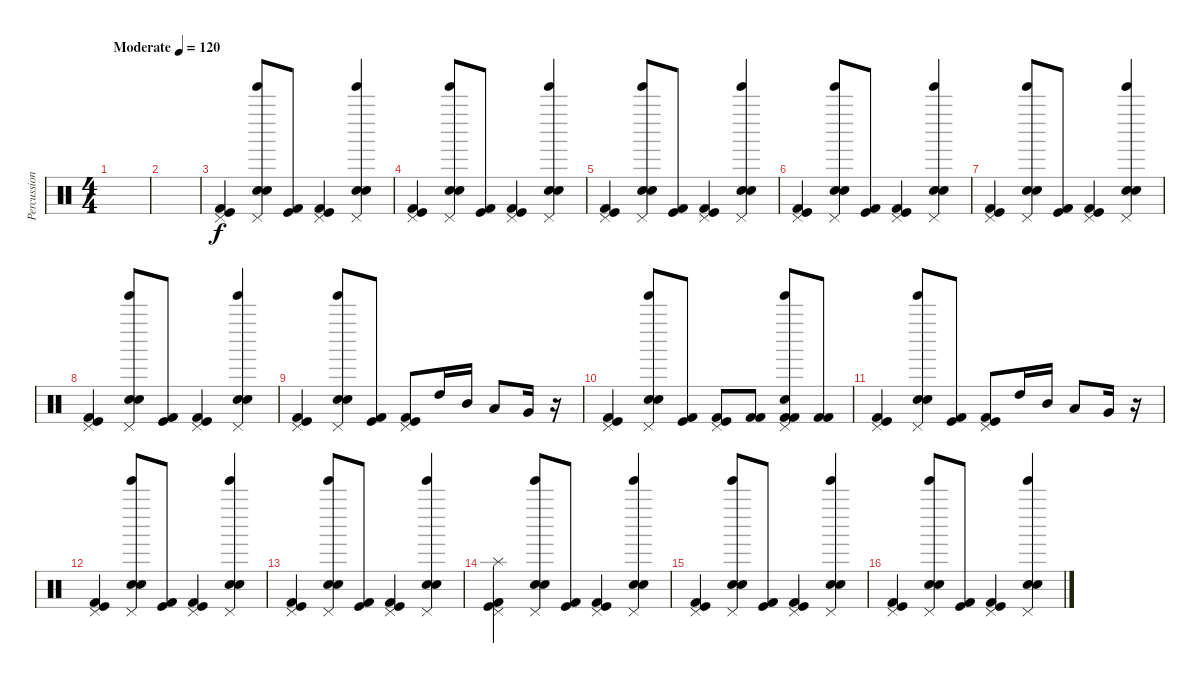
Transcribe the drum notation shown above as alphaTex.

\track ("Percussion" "Percussion") {instrument percussion}
\staff {score}
\articulation defaults
\ts (4 4)
\tempo (120 "Moderate")
\clef neutral
\ks c
|
|
("Pedal Hi-Hat (hit)" "Kick (hit)" "Kick (hit) 2").4 ("Tinkle Bell (hit)" "Pedal Hi-Hat (hit)" "Snare (hit) 2" "Electric Snare (hit)").8 ("Kick (hit)" "Kick (hit) 2").8 ("Pedal Hi-Hat (hit)" "Kick (hit)" "Kick (hit) 2").4 ("Tinkle Bell (hit)" "Pedal Hi-Hat (hit)" "Snare (hit) 2" "Electric Snare (hit)").4 |
("Pedal Hi-Hat (hit)" "Kick (hit)" "Kick (hit) 2").4 ("Tinkle Bell (hit)" "Pedal Hi-Hat (hit)" "Snare (hit) 2" "Electric Snare (hit)").8 ("Kick (hit)" "Kick (hit) 2").8 ("Pedal Hi-Hat (hit)" "Kick (hit)" "Kick (hit) 2").4 ("Tinkle Bell (hit)" "Pedal Hi-Hat (hit)" "Snare (hit) 2" "Electric Snare (hit)").4 |
("Pedal Hi-Hat (hit)" "Kick (hit)" "Kick (hit) 2").4 ("Tinkle Bell (hit)" "Pedal Hi-Hat (hit)" "Snare (hit) 2" "Electric Snare (hit)").8 ("Kick (hit)" "Kick (hit) 2").8 ("Pedal Hi-Hat (hit)" "Kick (hit)" "Kick (hit) 2").4 ("Tinkle Bell (hit)" "Pedal Hi-Hat (hit)" "Snare (hit) 2" "Electric Snare (hit)").4 |
("Pedal Hi-Hat (hit)" "Kick (hit)" "Kick (hit) 2").4 ("Tinkle Bell (hit)" "Pedal Hi-Hat (hit)" "Snare (hit) 2" "Electric Snare (hit)").8 ("Kick (hit)" "Kick (hit) 2").8 ("Pedal Hi-Hat (hit)" "Kick (hit)" "Kick (hit) 2").4 ("Tinkle Bell (hit)" "Pedal Hi-Hat (hit)" "Snare (hit) 2" "Electric Snare (hit)").4 |
("Pedal Hi-Hat (hit)" "Kick (hit)" "Kick (hit) 2").4 ("Tinkle Bell (hit)" "Pedal Hi-Hat (hit)" "Snare (hit) 2" "Electric Snare (hit)").8 ("Kick (hit)" "Kick (hit) 2").8 ("Pedal Hi-Hat (hit)" "Kick (hit)" "Kick (hit) 2").4 ("Tinkle Bell (hit)" "Pedal Hi-Hat (hit)" "Snare (hit) 2" "Electric Snare (hit)").4 |
("Pedal Hi-Hat (hit)" "Kick (hit)" "Kick (hit) 2").4 ("Tinkle Bell (hit)" "Pedal Hi-Hat (hit)" "Snare (hit) 2" "Electric Snare (hit)").8 ("Kick (hit)" "Kick (hit) 2").8 ("Pedal Hi-Hat (hit)" "Kick (hit)" "Kick (hit) 2").4 ("Tinkle Bell (hit)" "Pedal Hi-Hat (hit)" "Snare (hit) 2" "Electric Snare (hit)").4 |
("Pedal Hi-Hat (hit)" "Kick (hit)" "Kick (hit) 2").4 ("Tinkle Bell (hit)" "Pedal Hi-Hat (hit)" "Snare (hit) 2" "Electric Snare (hit)").8 ("Kick (hit)" "Kick (hit) 2").8 ("Pedal Hi-Hat (hit)" "Kick (hit)" "Kick (hit) 2").8 "High Tom (hit)".16 "Mid Tom (hit)".16 "Low Tom (hit)".8 "Very Low Tom (hit)".16 r.16 |
("Pedal Hi-Hat (hit)" "Kick (hit)" "Kick (hit) 2").4 ("Tinkle Bell (hit)" "Pedal Hi-Hat (hit)" "Snare (hit) 2" "Electric Snare (hit)").8 ("Kick (hit)" "Kick (hit) 2").8 ("Pedal Hi-Hat (hit)" "Kick (hit)" "Kick (hit) 2").8 ("Kick (hit) 2" "Kick (hit) 2").8 ("Tinkle Bell (hit)" "Pedal Hi-Hat (hit)" "Snare (hit) 2" "Kick (hit) 2" "Kick (hit) 2").8 ("Kick (hit) 2" "Kick (hit) 2").8 |
("Pedal Hi-Hat (hit)" "Kick (hit)" "Kick (hit) 2").4 ("Tinkle Bell (hit)" "Pedal Hi-Hat (hit)" "Snare (hit) 2" "Electric Snare (hit)").8 ("Kick (hit)" "Kick (hit) 2").8 ("Pedal Hi-Hat (hit)" "Kick (hit)" "Kick (hit) 2").8 "High Tom (hit)".16 "Mid Tom (hit)".16 "Low Tom (hit)".8 "Very Low Tom (hit)".16 r.16 |
("Pedal Hi-Hat (hit)" "Kick (hit)" "Kick (hit) 2").4 ("Tinkle Bell (hit)" "Pedal Hi-Hat (hit)" "Snare (hit) 2" "Electric Snare (hit)").8 ("Kick (hit)" "Kick (hit) 2").8 ("Pedal Hi-Hat (hit)" "Kick (hit)" "Kick (hit) 2").4 ("Tinkle Bell (hit)" "Pedal Hi-Hat (hit)" "Snare (hit) 2" "Electric Snare (hit)").4 |
("Pedal Hi-Hat (hit)" "Kick (hit)" "Kick (hit) 2").4 ("Tinkle Bell (hit)" "Pedal Hi-Hat (hit)" "Snare (hit) 2" "Electric Snare (hit)").8 ("Kick (hit)" "Kick (hit) 2").8 ("Pedal Hi-Hat (hit)" "Kick (hit)" "Kick (hit) 2").4 ("Tinkle Bell (hit)" "Pedal Hi-Hat (hit)" "Snare (hit) 2" "Electric Snare (hit)").4 |
("Splash (hit)" "Pedal Hi-Hat (hit)" "Kick (hit)" "Kick (hit) 2").4 ("Tinkle Bell (hit)" "Pedal Hi-Hat (hit)" "Snare (hit) 2" "Electric Snare (hit)").8 ("Kick (hit)" "Kick (hit) 2").8 ("Pedal Hi-Hat (hit)" "Kick (hit)" "Kick (hit) 2").4 ("Tinkle Bell (hit)" "Pedal Hi-Hat (hit)" "Snare (hit) 2" "Electric Snare (hit)").4 |
("Pedal Hi-Hat (hit)" "Kick (hit)" "Kick (hit) 2").4 ("Tinkle Bell (hit)" "Pedal Hi-Hat (hit)" "Snare (hit) 2" "Electric Snare (hit)").8 ("Kick (hit)" "Kick (hit) 2").8 ("Pedal Hi-Hat (hit)" "Kick (hit)" "Kick (hit) 2").4 ("Tinkle Bell (hit)" "Pedal Hi-Hat (hit)" "Snare (hit) 2" "Electric Snare (hit)").4 |
("Pedal Hi-Hat (hit)" "Kick (hit)" "Kick (hit) 2").4 ("Tinkle Bell (hit)" "Pedal Hi-Hat (hit)" "Snare (hit) 2" "Electric Snare (hit)").8 ("Kick (hit)" "Kick (hit) 2").8 ("Pedal Hi-Hat (hit)" "Kick (hit)" "Kick (hit) 2").4 ("Tinkle Bell (hit)" "Pedal Hi-Hat (hit)" "Snare (hit) 2" "Electric Snare (hit)").4
